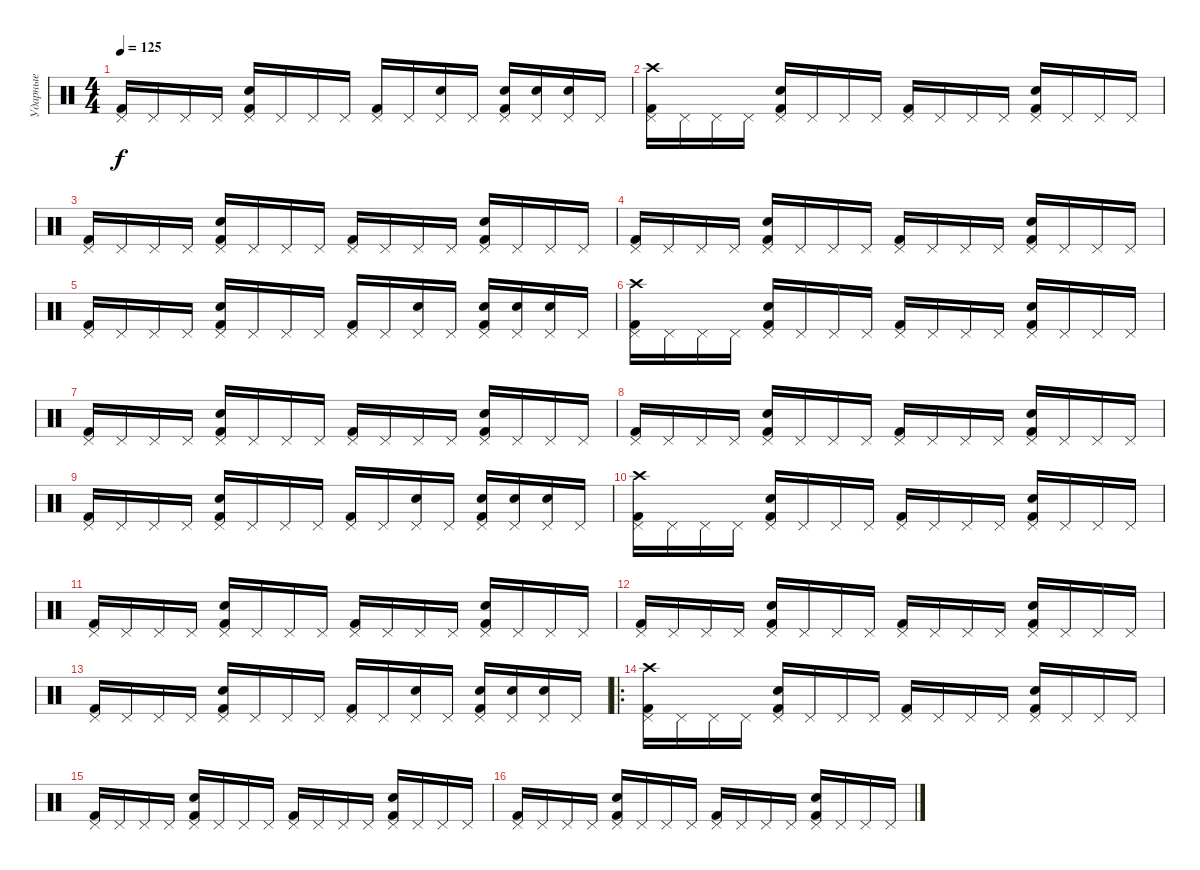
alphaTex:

\track ("Ударные" "Ударные") {instrument percussion}
\staff {score}
\articulation defaults
\ts (4 4)
\tempo 125
\clef neutral
\ks c
("Kick (hit) 2" "Pedal Hi-Hat (hit)").16{dy f} "Pedal Hi-Hat (hit)".16 "Pedal Hi-Hat (hit)".16 "Pedal Hi-Hat (hit)".16 ("Kick (hit) 2" "Pedal Hi-Hat (hit)" "Snare (hit) 2").16 "Pedal Hi-Hat (hit)".16 "Pedal Hi-Hat (hit)".16 "Pedal Hi-Hat (hit)".16 ("Kick (hit) 2" "Pedal Hi-Hat (hit)").16 "Pedal Hi-Hat (hit)".16 ("Pedal Hi-Hat (hit)" "Snare (hit) 2").16 "Pedal Hi-Hat (hit)".16 ("Kick (hit) 2" "Pedal Hi-Hat (hit)" "Snare (hit) 2").16 ("Pedal Hi-Hat (hit)" "Snare (hit) 2").16 ("Pedal Hi-Hat (hit)" "Snare (hit) 2").16 "Pedal Hi-Hat (hit)".16 |
("Kick (hit) 2" "Pedal Hi-Hat (hit)" "Crash high (hit)").16 "Pedal Hi-Hat (hit)".16 "Pedal Hi-Hat (hit)".16 "Pedal Hi-Hat (hit)".16 ("Kick (hit) 2" "Pedal Hi-Hat (hit)" "Snare (hit) 2").16 "Pedal Hi-Hat (hit)".16 "Pedal Hi-Hat (hit)".16 "Pedal Hi-Hat (hit)".16 ("Kick (hit) 2" "Pedal Hi-Hat (hit)").16 "Pedal Hi-Hat (hit)".16 "Pedal Hi-Hat (hit)".16 "Pedal Hi-Hat (hit)".16 ("Kick (hit) 2" "Pedal Hi-Hat (hit)" "Snare (hit) 2").16 "Pedal Hi-Hat (hit)".16 "Pedal Hi-Hat (hit)".16 "Pedal Hi-Hat (hit)".16 |
("Kick (hit) 2" "Pedal Hi-Hat (hit)").16 "Pedal Hi-Hat (hit)".16 "Pedal Hi-Hat (hit)".16 "Pedal Hi-Hat (hit)".16 ("Kick (hit) 2" "Pedal Hi-Hat (hit)" "Snare (hit) 2").16 "Pedal Hi-Hat (hit)".16 "Pedal Hi-Hat (hit)".16 "Pedal Hi-Hat (hit)".16 ("Kick (hit) 2" "Pedal Hi-Hat (hit)").16 "Pedal Hi-Hat (hit)".16 "Pedal Hi-Hat (hit)".16 "Pedal Hi-Hat (hit)".16 ("Kick (hit) 2" "Pedal Hi-Hat (hit)" "Snare (hit) 2").16 "Pedal Hi-Hat (hit)".16 "Pedal Hi-Hat (hit)".16 "Pedal Hi-Hat (hit)".16 |
("Kick (hit) 2" "Pedal Hi-Hat (hit)").16 "Pedal Hi-Hat (hit)".16 "Pedal Hi-Hat (hit)".16 "Pedal Hi-Hat (hit)".16 ("Kick (hit) 2" "Pedal Hi-Hat (hit)" "Snare (hit) 2").16 "Pedal Hi-Hat (hit)".16 "Pedal Hi-Hat (hit)".16 "Pedal Hi-Hat (hit)".16 ("Kick (hit) 2" "Pedal Hi-Hat (hit)").16 "Pedal Hi-Hat (hit)".16 "Pedal Hi-Hat (hit)".16 "Pedal Hi-Hat (hit)".16 ("Kick (hit) 2" "Pedal Hi-Hat (hit)" "Snare (hit) 2").16 "Pedal Hi-Hat (hit)".16 "Pedal Hi-Hat (hit)".16 "Pedal Hi-Hat (hit)".16 |
("Kick (hit) 2" "Pedal Hi-Hat (hit)").16 "Pedal Hi-Hat (hit)".16 "Pedal Hi-Hat (hit)".16 "Pedal Hi-Hat (hit)".16 ("Kick (hit) 2" "Pedal Hi-Hat (hit)" "Snare (hit) 2").16 "Pedal Hi-Hat (hit)".16 "Pedal Hi-Hat (hit)".16 "Pedal Hi-Hat (hit)".16 ("Kick (hit) 2" "Pedal Hi-Hat (hit)").16 "Pedal Hi-Hat (hit)".16 ("Pedal Hi-Hat (hit)" "Snare (hit) 2").16 "Pedal Hi-Hat (hit)".16 ("Kick (hit) 2" "Pedal Hi-Hat (hit)" "Snare (hit) 2").16 ("Pedal Hi-Hat (hit)" "Snare (hit) 2").16 ("Pedal Hi-Hat (hit)" "Snare (hit) 2").16 "Pedal Hi-Hat (hit)".16 |
("Kick (hit) 2" "Pedal Hi-Hat (hit)" "Crash high (hit)").16 "Pedal Hi-Hat (hit)".16 "Pedal Hi-Hat (hit)".16 "Pedal Hi-Hat (hit)".16 ("Kick (hit) 2" "Pedal Hi-Hat (hit)" "Snare (hit) 2").16 "Pedal Hi-Hat (hit)".16 "Pedal Hi-Hat (hit)".16 "Pedal Hi-Hat (hit)".16 ("Kick (hit) 2" "Pedal Hi-Hat (hit)").16 "Pedal Hi-Hat (hit)".16 "Pedal Hi-Hat (hit)".16 "Pedal Hi-Hat (hit)".16 ("Kick (hit) 2" "Pedal Hi-Hat (hit)" "Snare (hit) 2").16 "Pedal Hi-Hat (hit)".16 "Pedal Hi-Hat (hit)".16 "Pedal Hi-Hat (hit)".16 |
("Kick (hit) 2" "Pedal Hi-Hat (hit)").16 "Pedal Hi-Hat (hit)".16 "Pedal Hi-Hat (hit)".16 "Pedal Hi-Hat (hit)".16 ("Kick (hit) 2" "Pedal Hi-Hat (hit)" "Snare (hit) 2").16 "Pedal Hi-Hat (hit)".16 "Pedal Hi-Hat (hit)".16 "Pedal Hi-Hat (hit)".16 ("Kick (hit) 2" "Pedal Hi-Hat (hit)").16 "Pedal Hi-Hat (hit)".16 "Pedal Hi-Hat (hit)".16 "Pedal Hi-Hat (hit)".16 ("Kick (hit) 2" "Pedal Hi-Hat (hit)" "Snare (hit) 2").16 "Pedal Hi-Hat (hit)".16 "Pedal Hi-Hat (hit)".16 "Pedal Hi-Hat (hit)".16 |
("Kick (hit) 2" "Pedal Hi-Hat (hit)").16 "Pedal Hi-Hat (hit)".16 "Pedal Hi-Hat (hit)".16 "Pedal Hi-Hat (hit)".16 ("Kick (hit) 2" "Pedal Hi-Hat (hit)" "Snare (hit) 2").16 "Pedal Hi-Hat (hit)".16 "Pedal Hi-Hat (hit)".16 "Pedal Hi-Hat (hit)".16 ("Kick (hit) 2" "Pedal Hi-Hat (hit)").16 "Pedal Hi-Hat (hit)".16 "Pedal Hi-Hat (hit)".16 "Pedal Hi-Hat (hit)".16 ("Kick (hit) 2" "Pedal Hi-Hat (hit)" "Snare (hit) 2").16 "Pedal Hi-Hat (hit)".16 "Pedal Hi-Hat (hit)".16 "Pedal Hi-Hat (hit)".16 |
("Kick (hit) 2" "Pedal Hi-Hat (hit)").16 "Pedal Hi-Hat (hit)".16 "Pedal Hi-Hat (hit)".16 "Pedal Hi-Hat (hit)".16 ("Kick (hit) 2" "Pedal Hi-Hat (hit)" "Snare (hit) 2").16 "Pedal Hi-Hat (hit)".16 "Pedal Hi-Hat (hit)".16 "Pedal Hi-Hat (hit)".16 ("Kick (hit) 2" "Pedal Hi-Hat (hit)").16 "Pedal Hi-Hat (hit)".16 ("Pedal Hi-Hat (hit)" "Snare (hit) 2").16 "Pedal Hi-Hat (hit)".16 ("Kick (hit) 2" "Pedal Hi-Hat (hit)" "Snare (hit) 2").16 ("Pedal Hi-Hat (hit)" "Snare (hit) 2").16 ("Pedal Hi-Hat (hit)" "Snare (hit) 2").16 "Pedal Hi-Hat (hit)".16 |
("Kick (hit) 2" "Pedal Hi-Hat (hit)" "Crash high (hit)").16 "Pedal Hi-Hat (hit)".16 "Pedal Hi-Hat (hit)".16 "Pedal Hi-Hat (hit)".16 ("Kick (hit) 2" "Pedal Hi-Hat (hit)" "Snare (hit) 2").16 "Pedal Hi-Hat (hit)".16 "Pedal Hi-Hat (hit)".16 "Pedal Hi-Hat (hit)".16 ("Kick (hit) 2" "Pedal Hi-Hat (hit)").16 "Pedal Hi-Hat (hit)".16 "Pedal Hi-Hat (hit)".16 "Pedal Hi-Hat (hit)".16 ("Kick (hit) 2" "Pedal Hi-Hat (hit)" "Snare (hit) 2").16 "Pedal Hi-Hat (hit)".16 "Pedal Hi-Hat (hit)".16 "Pedal Hi-Hat (hit)".16 |
("Kick (hit) 2" "Pedal Hi-Hat (hit)").16 "Pedal Hi-Hat (hit)".16 "Pedal Hi-Hat (hit)".16 "Pedal Hi-Hat (hit)".16 ("Kick (hit) 2" "Pedal Hi-Hat (hit)" "Snare (hit) 2").16 "Pedal Hi-Hat (hit)".16 "Pedal Hi-Hat (hit)".16 "Pedal Hi-Hat (hit)".16 ("Kick (hit) 2" "Pedal Hi-Hat (hit)").16 "Pedal Hi-Hat (hit)".16 "Pedal Hi-Hat (hit)".16 "Pedal Hi-Hat (hit)".16 ("Kick (hit) 2" "Pedal Hi-Hat (hit)" "Snare (hit) 2").16 "Pedal Hi-Hat (hit)".16 "Pedal Hi-Hat (hit)".16 "Pedal Hi-Hat (hit)".16 |
("Kick (hit) 2" "Pedal Hi-Hat (hit)").16 "Pedal Hi-Hat (hit)".16 "Pedal Hi-Hat (hit)".16 "Pedal Hi-Hat (hit)".16 ("Kick (hit) 2" "Pedal Hi-Hat (hit)" "Snare (hit) 2").16 "Pedal Hi-Hat (hit)".16 "Pedal Hi-Hat (hit)".16 "Pedal Hi-Hat (hit)".16 ("Kick (hit) 2" "Pedal Hi-Hat (hit)").16 "Pedal Hi-Hat (hit)".16 "Pedal Hi-Hat (hit)".16 "Pedal Hi-Hat (hit)".16 ("Kick (hit) 2" "Pedal Hi-Hat (hit)" "Snare (hit) 2").16 "Pedal Hi-Hat (hit)".16 "Pedal Hi-Hat (hit)".16 "Pedal Hi-Hat (hit)".16 |
("Kick (hit) 2" "Pedal Hi-Hat (hit)").16 "Pedal Hi-Hat (hit)".16 "Pedal Hi-Hat (hit)".16 "Pedal Hi-Hat (hit)".16 ("Kick (hit) 2" "Pedal Hi-Hat (hit)" "Snare (hit) 2").16 "Pedal Hi-Hat (hit)".16 "Pedal Hi-Hat (hit)".16 "Pedal Hi-Hat (hit)".16 ("Kick (hit) 2" "Pedal Hi-Hat (hit)").16 "Pedal Hi-Hat (hit)".16 ("Pedal Hi-Hat (hit)" "Snare (hit) 2").16 "Pedal Hi-Hat (hit)".16 ("Kick (hit) 2" "Pedal Hi-Hat (hit)" "Snare (hit) 2").16 ("Pedal Hi-Hat (hit)" "Snare (hit) 2").16 ("Pedal Hi-Hat (hit)" "Snare (hit) 2").16 "Pedal Hi-Hat (hit)".16 |
\ro
("Kick (hit) 2" "Pedal Hi-Hat (hit)" "Crash high (hit)").16 "Pedal Hi-Hat (hit)".16 "Pedal Hi-Hat (hit)".16 "Pedal Hi-Hat (hit)".16 ("Kick (hit) 2" "Pedal Hi-Hat (hit)" "Snare (hit) 2").16 "Pedal Hi-Hat (hit)".16 "Pedal Hi-Hat (hit)".16 "Pedal Hi-Hat (hit)".16 ("Kick (hit) 2" "Pedal Hi-Hat (hit)").16 "Pedal Hi-Hat (hit)".16 "Pedal Hi-Hat (hit)".16 "Pedal Hi-Hat (hit)".16 ("Kick (hit) 2" "Pedal Hi-Hat (hit)" "Snare (hit) 2").16 "Pedal Hi-Hat (hit)".16 "Pedal Hi-Hat (hit)".16 "Pedal Hi-Hat (hit)".16 |
("Kick (hit) 2" "Pedal Hi-Hat (hit)").16 "Pedal Hi-Hat (hit)".16 "Pedal Hi-Hat (hit)".16 "Pedal Hi-Hat (hit)".16 ("Kick (hit) 2" "Pedal Hi-Hat (hit)" "Snare (hit) 2").16 "Pedal Hi-Hat (hit)".16 "Pedal Hi-Hat (hit)".16 "Pedal Hi-Hat (hit)".16 ("Kick (hit) 2" "Pedal Hi-Hat (hit)").16 "Pedal Hi-Hat (hit)".16 "Pedal Hi-Hat (hit)".16 "Pedal Hi-Hat (hit)".16 ("Kick (hit) 2" "Pedal Hi-Hat (hit)" "Snare (hit) 2").16 "Pedal Hi-Hat (hit)".16 "Pedal Hi-Hat (hit)".16 "Pedal Hi-Hat (hit)".16 |
("Kick (hit) 2" "Pedal Hi-Hat (hit)").16 "Pedal Hi-Hat (hit)".16 "Pedal Hi-Hat (hit)".16 "Pedal Hi-Hat (hit)".16 ("Kick (hit) 2" "Pedal Hi-Hat (hit)" "Snare (hit) 2").16 "Pedal Hi-Hat (hit)".16 "Pedal Hi-Hat (hit)".16 "Pedal Hi-Hat (hit)".16 ("Kick (hit) 2" "Pedal Hi-Hat (hit)").16 "Pedal Hi-Hat (hit)".16 "Pedal Hi-Hat (hit)".16 "Pedal Hi-Hat (hit)".16 ("Kick (hit) 2" "Pedal Hi-Hat (hit)" "Snare (hit) 2").16 "Pedal Hi-Hat (hit)".16 "Pedal Hi-Hat (hit)".16 "Pedal Hi-Hat (hit)".16
